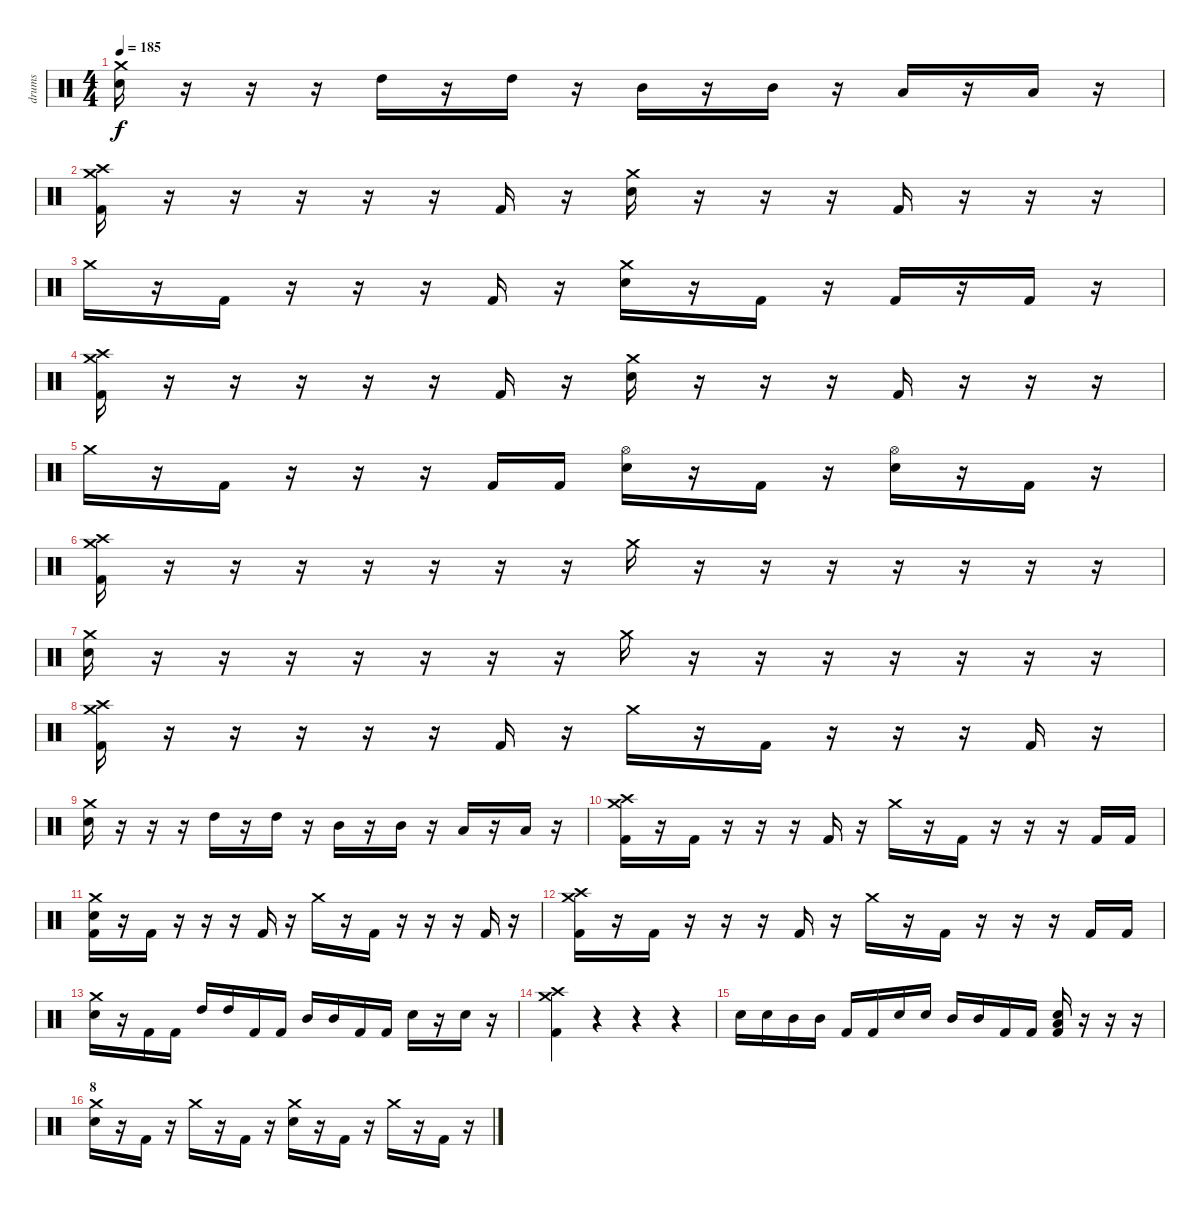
\track ("drums" "drums") {instrument percussion}
\staff {score}
\articulation defaults
\ts (4 4)
\tempo 185
\clef neutral
\ks c
("Crash medium (hit)" "Electric Snare (hit)").16{dy f} r.16 r.16 r.16 "High Tom (hit)".16 r.16 "High Tom (hit)".16 r.16 "Mid Tom (hit)".16 r.16 "Mid Tom (hit)".16 r.16 "Low Floor Tom (hit)".16 r.16 "Low Floor Tom (hit)".16 r.16 |
("Crash high (hit)" "Crash medium (hit)" "Kick (hit) 2").16 r.16 r.16 r.16 r.16 r.16 "Kick (hit) 2".16 r.16 ("Crash medium (hit)" "Electric Snare (hit)").16 r.16 r.16 r.16 "Kick (hit) 2".16 r.16 r.16 r.16 |
"Crash medium (hit)".16 r.16 "Kick (hit) 2".16 r.16 r.16 r.16 "Kick (hit) 2".16 r.16 ("Crash medium (hit)" "Electric Snare (hit)").16 r.16 "Kick (hit) 2".16 r.16 "Kick (hit) 2".16 r.16 "Kick (hit) 2".16 r.16 |
("Crash high (hit)" "Crash medium (hit)" "Kick (hit) 2").16 r.16 r.16 r.16 r.16 r.16 "Kick (hit) 2".16 r.16 ("Crash medium (hit)" "Electric Snare (hit)").16 r.16 r.16 r.16 "Kick (hit) 2".16 r.16 r.16 r.16 |
"Crash medium (hit)".16 r.16 "Kick (hit) 2".16 r.16 r.16 r.16 "Kick (hit) 2".16 "Kick (hit) 2".16 ("Hi-Hat (open)" "Electric Snare (hit)").16 r.16 "Kick (hit) 2".16 r.16 ("Hi-Hat (open)" "Electric Snare (hit)").16 r.16 "Kick (hit) 2".16 r.16 |
("Crash medium (hit)" "Crash high (hit)" "Kick (hit) 2").16 r.16 r.16 r.16 r.16 r.16 r.16 r.16 "Crash medium (hit)".16 r.16 r.16 r.16 r.16 r.16 r.16 r.16 |
("Crash medium (hit)" "Electric Snare (hit)").16 r.16 r.16 r.16 r.16 r.16 r.16 r.16 "Crash medium (hit)".16 r.16 r.16 r.16 r.16 r.16 r.16 r.16 |
("Crash medium (hit)" "Crash high (hit)" "Kick (hit) 2").16 r.16 r.16 r.16 r.16 r.16 "Kick (hit) 2".16 r.16 "Crash medium (hit)".16 r.16 "Kick (hit) 2".16 r.16 r.16 r.16 "Kick (hit) 2".16 r.16 |
("Crash medium (hit)" "Electric Snare (hit)").16 r.16 r.16 r.16 "High Tom (hit)".16 r.16 "High Tom (hit)".16 r.16 "Mid Tom (hit)".16 r.16 "Mid Tom (hit)".16 r.16 "Low Floor Tom (hit)".16 r.16 "Low Floor Tom (hit)".16 r.16 |
("Crash high (hit)" "Crash medium (hit)" "Kick (hit) 2").16 r.16 "Kick (hit) 2".16 r.16 r.16 r.16 "Kick (hit) 2".16 r.16 "Crash medium (hit)".16 r.16 "Kick (hit) 2".16 r.16 r.16 r.16 "Kick (hit) 2".16 "Kick (hit) 2".16 |
("Crash medium (hit)" "Electric Snare (hit)" "Kick (hit) 2").16 r.16 "Kick (hit) 2".16 r.16 r.16 r.16 "Kick (hit) 2".16 r.16 "Crash medium (hit)".16 r.16 "Kick (hit) 2".16 r.16 r.16 r.16 "Kick (hit) 2".16 r.16 |
("Crash medium (hit)" "Crash high (hit)" "Kick (hit) 2").16 r.16 "Kick (hit) 2".16 r.16 r.16 r.16 "Kick (hit) 2".16 r.16 "Crash medium (hit)".16 r.16 "Kick (hit) 2".16 r.16 r.16 r.16 "Kick (hit) 2".16 "Kick (hit) 2".16 |
("Crash medium (hit)" "Electric Snare (hit)").16 r.16 "Kick (hit) 2".16 "Kick (hit) 2".16 "High Tom (hit)".16 "High Tom (hit)".16 "Kick (hit) 2".16 "Kick (hit) 2".16 "Mid Tom (hit)".16 "Mid Tom (hit)".16 "Kick (hit) 2".16 "Kick (hit) 2".16 "Electric Snare (hit)".16 r.16 "Electric Snare (hit)".16 r.16 |
("Crash medium (hit)" "Crash high (hit)" "Kick (hit) 2").4 r.4 r.4 r.4 |
"Electric Snare (hit)".16 "Electric Snare (hit)".16 "Mid Tom (hit)".16 "Mid Tom (hit)".16 "Kick (hit) 2".16 "Kick (hit) 2".16 "Electric Snare (hit)".16 "Electric Snare (hit)".16 "Mid Tom (hit)".16 "Mid Tom (hit)".16 "Kick (hit) 2".16 "Kick (hit) 2".16 ("Electric Snare (hit)" "Low Floor Tom (hit)" "Kick (hit) 2").16 r.16 r.16 r.16 |
\section ("" "8")
("Crash medium (hit)" "Electric Snare (hit)").16 r.16 "Kick (hit) 2".16 r.16 "Crash medium (hit)".16 r.16 "Kick (hit) 2".16 r.16 ("Crash medium (hit)" "Electric Snare (hit)").16 r.16 "Kick (hit) 2".16 r.16 "Crash medium (hit)".16 r.16 "Kick (hit) 2".16 r.16
